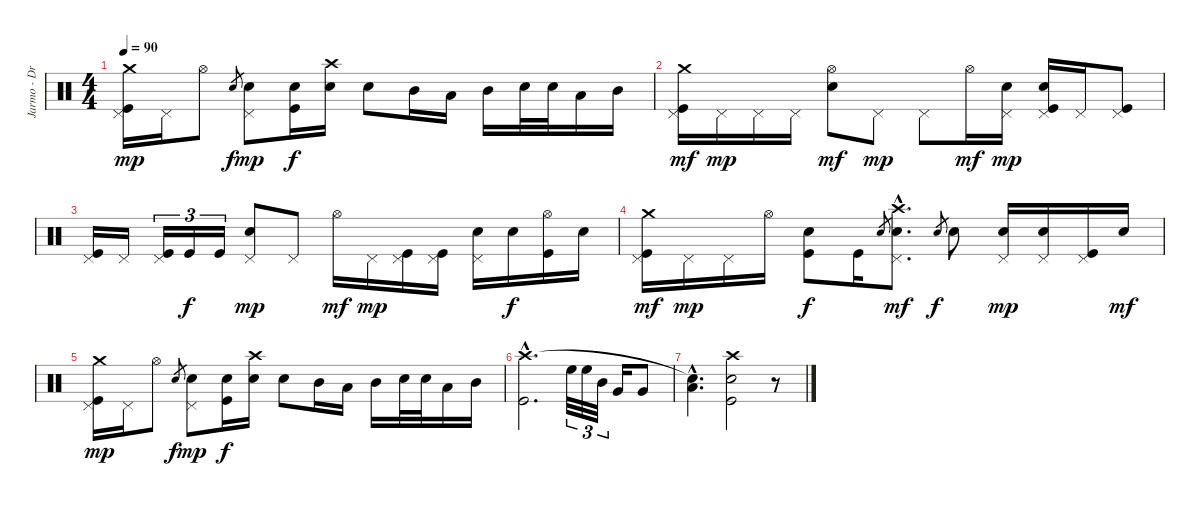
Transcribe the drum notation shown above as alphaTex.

\track ("Jarmo - Drums" "Jarmo - Dr") {instrument percussion}
\staff {score}
\articulation defaults
\ts (4 4)
\tempo 90
\clef neutral
\ks c
("Kick (hit)" "Pedal Hi-Hat (hit)" "Crash medium (hit)").16{dy mp} "Pedal Hi-Hat (hit)".16 "Hi-Hat (open)".8 "Snare (hit) 2".8{gr dy f} ("Electric Snare (hit)" "Pedal Hi-Hat (hit)").8{dy mp} ("Kick (hit)" "Electric Snare (hit)").16{dy f} ("Electric Snare (hit)" "Crash high (hit)").16 "Electric Snare (hit)".8 "Mid Tom (hit)".16 "Low Tom (hit)".16 "Mid Tom (hit)".16 "Electric Snare (hit)".32 "Electric Snare (hit)".32 "Low Tom (hit)".16 "Mid Tom (hit)".16 |
("Kick (hit)" "Pedal Hi-Hat (hit)" "Crash medium (hit)").16{dy mf} "Pedal Hi-Hat (hit)".16{dy mp} "Pedal Hi-Hat (hit)".16 "Pedal Hi-Hat (hit)".16 ("Electric Snare (hit)" "Hi-Hat (open)").8{dy mf} "Pedal Hi-Hat (hit)".8{dy mp} "Pedal Hi-Hat (hit)".8 "Hi-Hat (open)".16{dy mf} ("Electric Snare (hit)" "Pedal Hi-Hat (hit)").16{dy mp} ("Kick (hit)" "Electric Snare (hit)" "Pedal Hi-Hat (hit)").16 "Pedal Hi-Hat (hit)".16 ("Kick (hit)" "Pedal Hi-Hat (hit)").8 |
("Kick (hit)" "Pedal Hi-Hat (hit)").16 "Pedal Hi-Hat (hit)".16 ("Kick (hit)" "Pedal Hi-Hat (hit)").16{tu (3 2)} "Kick (hit)".16{tu (3 2) dy f} "Kick (hit)".16{tu (3 2)} ("Electric Snare (hit)" "Pedal Hi-Hat (hit)").8{dy mp} "Pedal Hi-Hat (hit)".8 "Hi-Hat (open)".16{dy mf} "Pedal Hi-Hat (hit)".16{dy mp} ("Kick (hit)" "Pedal Hi-Hat (hit)").16 ("Kick (hit)" "Pedal Hi-Hat (hit)").16 ("Electric Snare (hit)" "Pedal Hi-Hat (hit)").16 "Electric Snare (hit)".16{dy f} ("Kick (hit)" "Hi-Hat (open)").16 "Electric Snare (hit)".16 |
("Kick (hit)" "Pedal Hi-Hat (hit)" "Crash medium (hit)").16{dy mf} "Pedal Hi-Hat (hit)".16{dy mp} "Pedal Hi-Hat (hit)".16 "Hi-Hat (open)".16 ("Kick (hit)" "Electric Snare (hit)").8{dy f} "Kick (hit)".16 "Snare (hit) 2".8{gr} ("Electric Snare (hit)"{hac} "Pedal Hi-Hat (hit)"{hac} "Crash high (hit)"{hac}).8{d dy mf} "Snare (hit) 2".8{gr dy f} "Electric Snare (hit)".8 ("Electric Snare (hit)" "Pedal Hi-Hat (hit)").16{dy mp} ("Electric Snare (hit)" "Pedal Hi-Hat (hit)").16 ("Kick (hit)" "Pedal Hi-Hat (hit)").16 "Electric Snare (hit)".16{dy mf} |
("Kick (hit)" "Pedal Hi-Hat (hit)" "Crash medium (hit)").16{dy mp} "Pedal Hi-Hat (hit)".16 "Hi-Hat (open)".8 "Snare (hit) 2".8{gr dy f} ("Electric Snare (hit)" "Pedal Hi-Hat (hit)").8{dy mp} ("Kick (hit)" "Electric Snare (hit)").16{dy f} ("Electric Snare (hit)" "Crash high (hit)").16 "Electric Snare (hit)".8 "Mid Tom (hit)".16 "Low Tom (hit)".16 "Mid Tom (hit)".16 "Electric Snare (hit)".32 "Electric Snare (hit)".32 "Low Tom (hit)".16 "Mid Tom (hit)".16 |
("Kick (hit)"{hac} "Crash high (hit)"{hac}).2{d} "High Floor Tom (hit)".32{tu (3 2)} "High Floor Tom (hit)".32{tu (3 2)} "Mid Tom (hit)".32{tu (3 2)} "Very Low Tom (hit)".16 "Very Low Tom (hit)".8 |
("Low Floor Tom (hit)"{hac} "Snare (hit)"{hac t}).4{d} ("Kick (hit)" "Electric Snare (hit)" "Crash high (hit)").2 r.8
